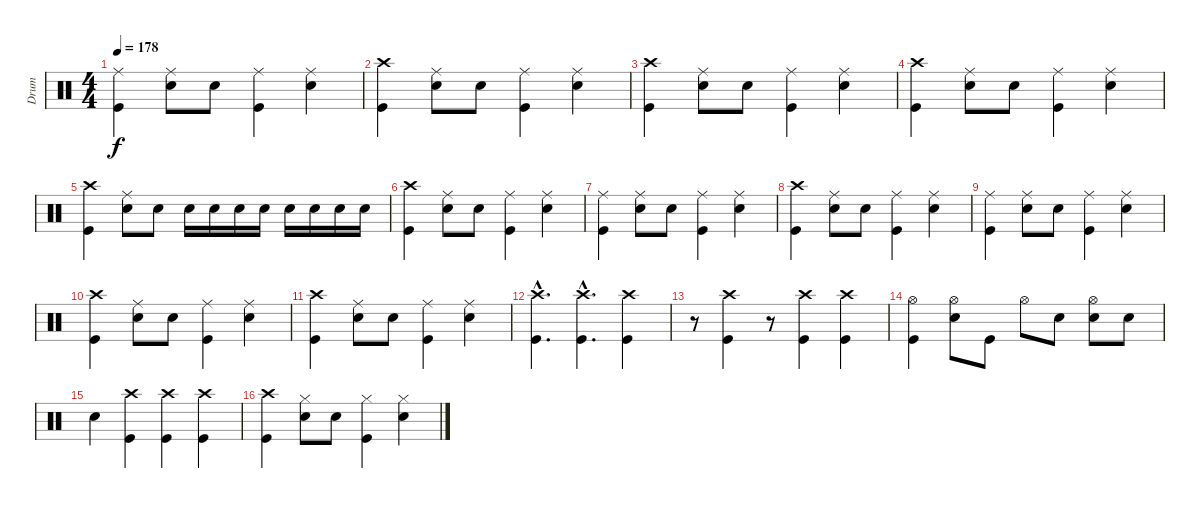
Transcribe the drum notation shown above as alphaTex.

\track ("Drum" "Drum") {instrument percussion}
\staff {score}
\articulation defaults
\ts (4 4)
\tempo 178
\clef neutral
\ks c
("Ride (middle)" "Kick (hit)").4{dy f} ("Ride (middle)" "Snare (hit) 2").8 "Snare (hit) 2".8 ("Ride (middle)" "Kick (hit)").4 ("Ride (middle)" "Snare (hit) 2").4 |
("Crash high (hit)" "Kick (hit)").4 ("Ride (middle)" "Snare (hit) 2").8 "Snare (hit) 2".8 ("Ride (middle)" "Kick (hit)").4 ("Ride (middle)" "Snare (hit) 2").4 |
("Crash high (hit)" "Kick (hit)").4 ("Ride (middle)" "Snare (hit) 2").8 "Snare (hit) 2".8 ("Ride (middle)" "Kick (hit)").4 ("Ride (middle)" "Snare (hit) 2").4 |
("Crash high (hit)" "Kick (hit)").4 ("Ride (middle)" "Snare (hit) 2").8 "Snare (hit) 2".8 ("Ride (middle)" "Kick (hit)").4 ("Ride (middle)" "Snare (hit) 2").4 |
("Crash high (hit)" "Kick (hit)").4 ("Ride (middle)" "Snare (hit) 2").8 "Snare (hit) 2".8 "Snare (hit) 2".16 "Snare (hit) 2".16 "Snare (hit) 2".16 "Snare (hit) 2".16 "Snare (hit) 2".16 "Snare (hit) 2".16 "Snare (hit) 2".16 "Snare (hit) 2".16 |
("Crash high (hit)" "Kick (hit)").4 ("Ride (middle)" "Snare (hit) 2").8 "Snare (hit) 2".8 ("Ride (middle)" "Kick (hit)").4 ("Ride (middle)" "Snare (hit) 2").4 |
("Ride (middle)" "Kick (hit)").4 ("Ride (middle)" "Snare (hit) 2").8 "Snare (hit) 2".8 ("Ride (middle)" "Kick (hit)").4 ("Ride (middle)" "Snare (hit) 2").4 |
("Crash high (hit)" "Kick (hit)").4 ("Ride (middle)" "Snare (hit) 2").8 "Snare (hit) 2".8 ("Ride (middle)" "Kick (hit)").4 ("Ride (middle)" "Snare (hit) 2").4 |
("Ride (middle)" "Kick (hit)").4 ("Ride (middle)" "Snare (hit) 2").8 "Snare (hit) 2".8 ("Ride (middle)" "Kick (hit)").4 ("Ride (middle)" "Snare (hit) 2").4 |
("Crash high (hit)" "Kick (hit)").4 ("Ride (middle)" "Snare (hit) 2").8 "Snare (hit) 2".8 ("Ride (middle)" "Kick (hit)").4 ("Ride (middle)" "Snare (hit) 2").4 |
("Crash high (hit)" "Kick (hit)").4 ("Ride (middle)" "Snare (hit) 2").8 "Snare (hit) 2".8 ("Ride (middle)" "Kick (hit)").4 ("Ride (middle)" "Snare (hit) 2").4 |
("Crash high (hit)"{hac} "Kick (hit)"{hac}).4{d} ("Crash high (hit)"{hac} "Kick (hit)"{hac}).4{d} ("Crash high (hit)" "Kick (hit)").4 |
r.8 ("Crash high (hit)" "Kick (hit)").4 r.8 ("Crash high (hit)" "Kick (hit)").4 ("Crash high (hit)" "Kick (hit)").4 |
("Hi-Hat (open)" "Kick (hit)").4 ("Hi-Hat (open)" "Snare (hit) 2").8 "Kick (hit)".8 "Hi-Hat (open)".8 "Snare (hit) 2".8 ("Hi-Hat (open)" "Snare (hit) 2").8 "Snare (hit) 2".8 |
"Snare (hit) 2".4 ("Crash high (hit)" "Kick (hit)").4 ("Crash high (hit)" "Kick (hit)").4 ("Crash high (hit)" "Kick (hit)").4 |
("Crash high (hit)" "Kick (hit)").4 ("Hi-Hat (closed)" "Snare (hit) 2").8 "Snare (hit) 2".8 ("Hi-Hat (closed)" "Kick (hit)").4 ("Hi-Hat (closed)" "Snare (hit) 2").4
